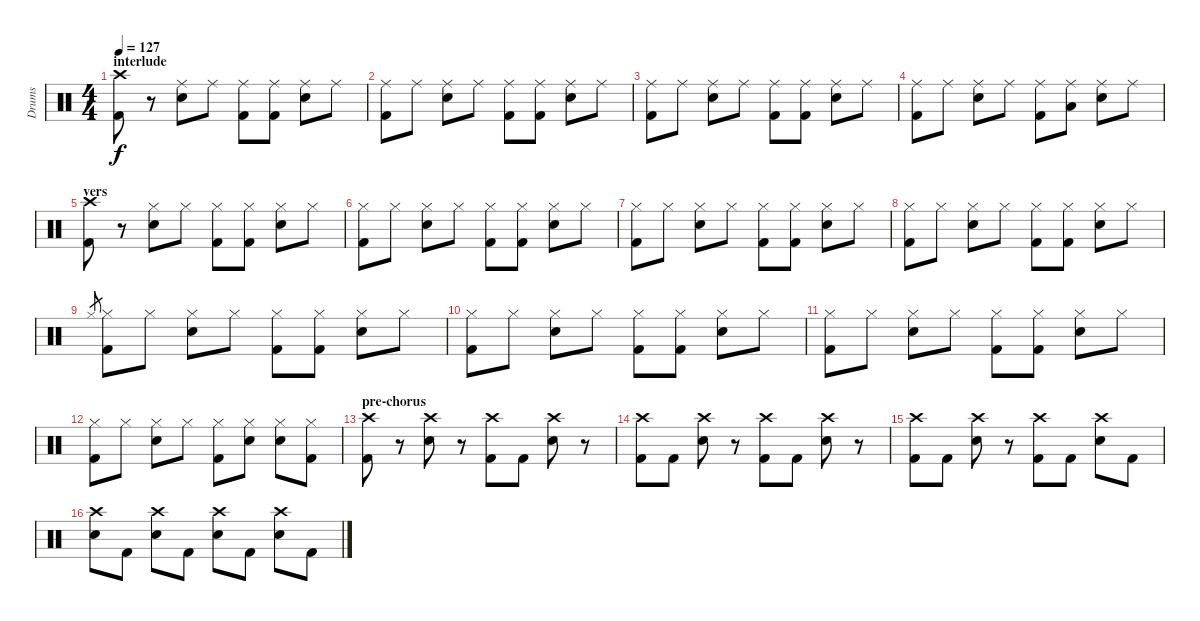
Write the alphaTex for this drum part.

\track ("Drums" "Drums") {instrument percussion}
\staff {score}
\articulation defaults
\ts (4 4)
\section ("" "interlude")
\tempo 127
\clef neutral
\ks c
("Crash high (hit)" "Kick (hit) 2").8{dy f} r.8 ("Ride (middle)" "Snare (hit) 2").8 "Ride (middle)".8 ("Ride (middle)" "Kick (hit) 2").8 ("Ride (middle)" "Kick (hit) 2").8 ("Ride (middle)" "Snare (hit) 2").8 "Ride (middle)".8 |
("Ride (middle)" "Kick (hit) 2").8 "Ride (middle)".8 ("Ride (middle)" "Snare (hit) 2").8 "Ride (middle)".8 ("Ride (middle)" "Kick (hit) 2").8 ("Ride (middle)" "Kick (hit) 2").8 ("Ride (middle)" "Snare (hit) 2").8 "Ride (middle)".8 |
("Ride (middle)" "Kick (hit) 2").8 "Ride (middle)".8 ("Ride (middle)" "Snare (hit) 2").8 "Ride (middle)".8 ("Ride (middle)" "Kick (hit) 2").8 ("Ride (middle)" "Kick (hit) 2").8 ("Ride (middle)" "Snare (hit) 2").8 "Ride (middle)".8 |
("Ride (middle)" "Kick (hit) 2").8 "Ride (middle)".8 ("Ride (middle)" "Snare (hit) 2").8 "Ride (middle)".8 ("Ride (middle)" "Kick (hit) 2").8 ("Ride (middle)" "Low Floor Tom (hit)").8 ("Ride (middle)" "Snare (hit) 2").8 "Ride (middle)".8 |
\section ("" "vers")
("Crash high (hit)" "Kick (hit) 2").8 r.8 ("Hi-Hat (closed)" "Snare (hit) 2").8 "Hi-Hat (closed)".8 ("Hi-Hat (closed)" "Kick (hit) 2").8 ("Hi-Hat (closed)" "Kick (hit) 2").8 ("Hi-Hat (closed)" "Snare (hit) 2").8 "Hi-Hat (closed)".8 |
("Hi-Hat (closed)" "Kick (hit) 2").8 "Hi-Hat (closed)".8 ("Hi-Hat (closed)" "Snare (hit) 2").8 "Hi-Hat (closed)".8 ("Hi-Hat (closed)" "Kick (hit) 2").8 ("Hi-Hat (closed)" "Kick (hit) 2").8 ("Hi-Hat (closed)" "Snare (hit) 2").8 "Hi-Hat (closed)".8 |
("Hi-Hat (closed)" "Kick (hit) 2").8 "Hi-Hat (closed)".8 ("Hi-Hat (closed)" "Snare (hit) 2").8 "Hi-Hat (closed)".8 ("Hi-Hat (closed)" "Kick (hit) 2").8 ("Hi-Hat (closed)" "Kick (hit) 2").8 ("Hi-Hat (closed)" "Snare (hit) 2").8 "Hi-Hat (closed)".8 |
("Hi-Hat (closed)" "Kick (hit) 2").8 "Hi-Hat (closed)".8 ("Hi-Hat (closed)" "Snare (hit) 2").8 "Hi-Hat (closed)".8 ("Hi-Hat (closed)" "Kick (hit) 2").8 ("Hi-Hat (closed)" "Kick (hit) 2").8 ("Hi-Hat (closed)" "Snare (hit) 2").8 "Hi-Hat (closed)".8 |
"Hi-Hat (closed)".8{gr} ("Hi-Hat (closed)" "Kick (hit) 2").8 "Hi-Hat (closed)".8 ("Hi-Hat (closed)" "Snare (hit) 2").8 "Hi-Hat (closed)".8 ("Hi-Hat (closed)" "Kick (hit) 2").8 ("Hi-Hat (closed)" "Kick (hit) 2").8 ("Hi-Hat (closed)" "Snare (hit) 2").8 "Hi-Hat (closed)".8 |
("Hi-Hat (closed)" "Kick (hit) 2").8 "Hi-Hat (closed)".8 ("Hi-Hat (closed)" "Snare (hit) 2").8 "Hi-Hat (closed)".8 ("Hi-Hat (closed)" "Kick (hit) 2").8 ("Hi-Hat (closed)" "Kick (hit) 2").8 ("Hi-Hat (closed)" "Snare (hit) 2").8 "Hi-Hat (closed)".8 |
("Hi-Hat (closed)" "Kick (hit) 2").8 "Hi-Hat (closed)".8 ("Hi-Hat (closed)" "Snare (hit) 2").8 "Hi-Hat (closed)".8 ("Hi-Hat (closed)" "Kick (hit) 2").8 ("Hi-Hat (closed)" "Kick (hit) 2").8 ("Hi-Hat (closed)" "Snare (hit) 2").8 "Hi-Hat (closed)".8 |
("Hi-Hat (closed)" "Kick (hit) 2").8 "Hi-Hat (closed)".8 ("Hi-Hat (closed)" "Snare (hit) 2").8 "Hi-Hat (closed)".8 ("Hi-Hat (closed)" "Kick (hit) 2").8 ("Hi-Hat (closed)" "Snare (hit) 2").8 ("Hi-Hat (closed)" "Snare (hit) 2").8 ("Hi-Hat (closed)" "Kick (hit) 2").8 |
\section ("" "pre-chorus")
("Crash high (hit)" "Kick (hit) 2").8 r.8 ("Crash high (hit)" "Snare (hit) 2").8 r.8 ("Crash high (hit)" "Kick (hit) 2").8 "Kick (hit) 2".8 ("Crash high (hit)" "Snare (hit) 2").8 r.8 |
("Crash high (hit)" "Kick (hit) 2").8 "Kick (hit) 2".8 ("Crash high (hit)" "Snare (hit) 2").8 r.8 ("Crash high (hit)" "Kick (hit) 2").8 "Kick (hit) 2".8 ("Crash high (hit)" "Snare (hit) 2").8 r.8 |
("Crash high (hit)" "Kick (hit) 2").8 "Kick (hit) 2".8 ("Crash high (hit)" "Snare (hit) 2").8 r.8 ("Crash high (hit)" "Kick (hit) 2").8 "Kick (hit) 2".8 ("Crash high (hit)" "Snare (hit) 2").8 "Kick (hit) 2".8 |
("Crash high (hit)" "Snare (hit) 2").8 "Kick (hit) 2".8 ("Crash high (hit)" "Snare (hit) 2").8 "Kick (hit) 2".8 ("Crash high (hit)" "Snare (hit) 2").8 "Kick (hit) 2".8 ("Crash high (hit)" "Snare (hit) 2").8 "Kick (hit) 2".8
